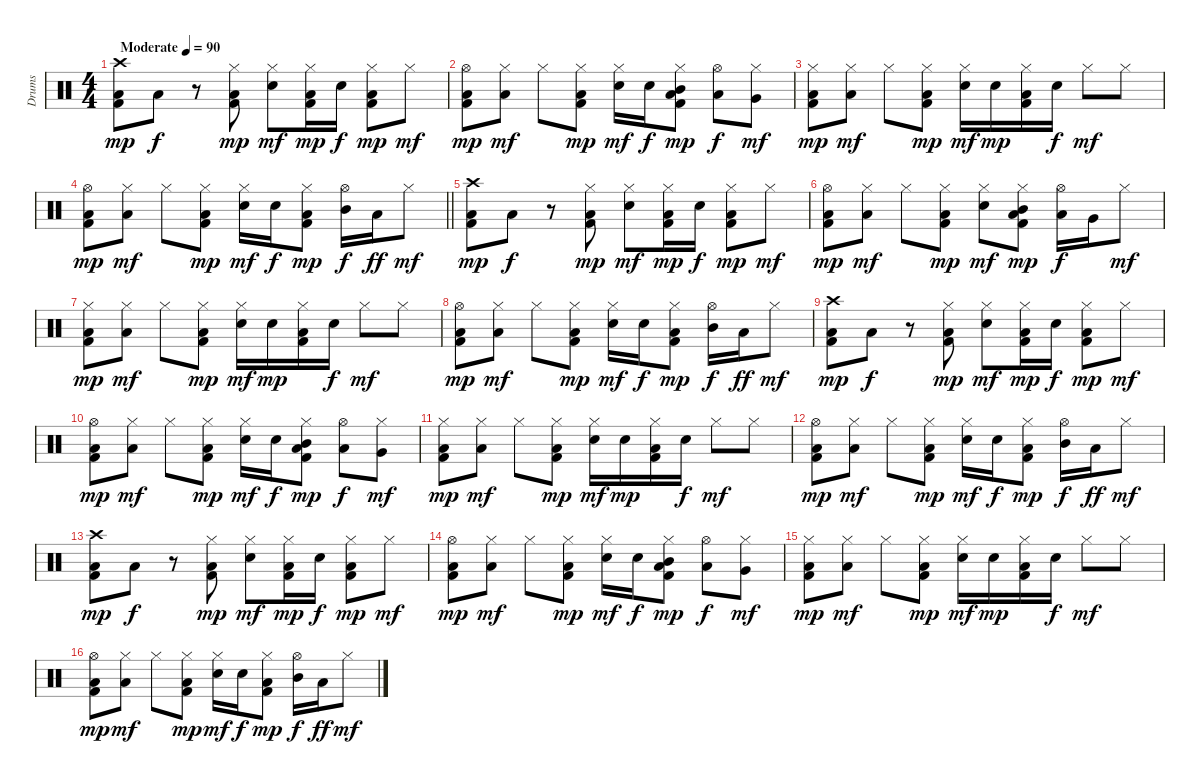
\track ("Drums" "Drums") {instrument percussion}
\staff {score}
\articulation defaults
\ts (4 4)
\tempo (90 "Moderate")
\clef neutral
\ks c
("Crash high (hit)" "Kick (hit) 2" "Low Floor Tom (hit)").8{dy mp} "Low Tom (hit)".8{dy f} r.8 ("Hi-Hat (closed)" "Kick (hit) 2" "Low Floor Tom (hit)").8{dy mp} ("Hi-Hat (closed)" "Snare (hit) 2").8{dy mf} ("Hi-Hat (closed)" "Kick (hit) 2" "Low Floor Tom (hit)").16{dy mp} "Snare (hit) 2".16{dy f} ("Hi-Hat (closed)" "Kick (hit) 2" "Low Floor Tom (hit)").8{dy mp} "Hi-Hat (closed)".8{dy mf} |
("Hi-Hat (open)" "Kick (hit) 2" "Low Floor Tom (hit)").8{dy mp} ("Hi-Hat (closed)" "Low Tom (hit)").8{dy mf} "Hi-Hat (closed)".8 ("Hi-Hat (closed)" "Kick (hit) 2" "Low Floor Tom (hit)").8{dy mp} ("Hi-Hat (closed)" "Snare (hit) 2").16{dy mf} "Snare (hit) 2".16{dy f} ("Hi-Hat (closed)" "Mid Tom (hit)" "Kick (hit) 2" "Low Floor Tom (hit)").8{dy mp} ("Hi-Hat (open)" "Low Tom (hit)").8{dy f} ("Hi-Hat (closed)" "Very Low Tom (hit)").8{dy mf} |
("Hi-Hat (closed)" "Kick (hit) 2" "Low Floor Tom (hit)").8{dy mp} ("Hi-Hat (closed)" "Low Tom (hit)").8{dy mf} "Hi-Hat (closed)".8 ("Hi-Hat (closed)" "Kick (hit) 2" "Low Floor Tom (hit)").8{dy mp} ("Hi-Hat (closed)" "Snare (hit) 2").16{dy mf} "Snare (hit) 2".16{dy mp} ("Hi-Hat (closed)" "Kick (hit) 2" "Low Floor Tom (hit)").16 "Snare (hit) 2".16{dy f} "Hi-Hat (closed)".8{dy mf} "Hi-Hat (closed)".8 |
\barLineRight lightlight
("Hi-Hat (open)" "Kick (hit) 2" "Low Floor Tom (hit)").8{dy mp} ("Hi-Hat (closed)" "Low Tom (hit)").8{dy mf} "Hi-Hat (closed)".8 ("Hi-Hat (closed)" "Kick (hit) 2" "Low Floor Tom (hit)").8{dy mp} ("Hi-Hat (closed)" "Snare (hit) 2").16{dy mf} "Snare (hit) 2".16{dy f} ("Hi-Hat (closed)" "Kick (hit) 2" "Low Floor Tom (hit)").8{dy mp} ("Hi-Hat (open)" "Mid Tom (hit)").16{dy f} "Low Tom (hit)".16{dy ff} "Hi-Hat (closed)".8{dy mf} |
\section ("" "")
("Crash high (hit)" "Kick (hit) 2" "Low Floor Tom (hit)").8{dy mp} "Low Tom (hit)".8{dy f} r.8 ("Hi-Hat (closed)" "Kick (hit) 2" "Low Floor Tom (hit)").8{dy mp} ("Hi-Hat (closed)" "Snare (hit) 2").8{dy mf} ("Hi-Hat (closed)" "Kick (hit) 2" "Low Floor Tom (hit)").16{dy mp} "Snare (hit) 2".16{dy f} ("Hi-Hat (closed)" "Kick (hit) 2" "Low Floor Tom (hit)").8{dy mp} "Hi-Hat (closed)".8{dy mf} |
("Hi-Hat (open)" "Kick (hit) 2" "Low Floor Tom (hit)").8{dy mp} ("Hi-Hat (closed)" "Low Tom (hit)").8{dy mf} "Hi-Hat (closed)".8 ("Hi-Hat (closed)" "Kick (hit) 2" "Low Floor Tom (hit)").8{dy mp} ("Hi-Hat (closed)" "Snare (hit) 2").8{dy mf} ("Hi-Hat (closed)" "Mid Tom (hit)" "Kick (hit) 2" "Low Floor Tom (hit)").8{dy mp} ("Hi-Hat (open)" "Low Tom (hit)").16{dy f} "Very Low Tom (hit)".16 "Hi-Hat (closed)".8{dy mf} |
("Hi-Hat (closed)" "Kick (hit) 2" "Low Floor Tom (hit)").8{dy mp} ("Hi-Hat (closed)" "Low Tom (hit)").8{dy mf} "Hi-Hat (closed)".8 ("Hi-Hat (closed)" "Kick (hit) 2" "Low Floor Tom (hit)").8{dy mp} ("Hi-Hat (closed)" "Snare (hit) 2").16{dy mf} "Snare (hit) 2".16{dy mp} ("Hi-Hat (closed)" "Kick (hit) 2" "Low Floor Tom (hit)").16 "Snare (hit) 2".16{dy f} "Hi-Hat (closed)".8{dy mf} "Hi-Hat (closed)".8 |
("Hi-Hat (open)" "Kick (hit) 2" "Low Floor Tom (hit)").8{dy mp} ("Hi-Hat (closed)" "Low Tom (hit)").8{dy mf} "Hi-Hat (closed)".8 ("Hi-Hat (closed)" "Kick (hit) 2" "Low Floor Tom (hit)").8{dy mp} ("Hi-Hat (closed)" "Snare (hit) 2").16{dy mf} "Snare (hit) 2".16{dy f} ("Hi-Hat (closed)" "Kick (hit) 2" "Low Floor Tom (hit)").8{dy mp} ("Hi-Hat (open)" "Mid Tom (hit)").16{dy f} "Low Tom (hit)".16{dy ff} "Hi-Hat (closed)".8{dy mf} |
("Crash high (hit)" "Kick (hit) 2" "Low Floor Tom (hit)").8{dy mp} "Low Tom (hit)".8{dy f} r.8 ("Hi-Hat (closed)" "Kick (hit) 2" "Low Floor Tom (hit)").8{dy mp} ("Hi-Hat (closed)" "Snare (hit) 2").8{dy mf} ("Hi-Hat (closed)" "Kick (hit) 2" "Low Floor Tom (hit)").16{dy mp} "Snare (hit) 2".16{dy f} ("Hi-Hat (closed)" "Kick (hit) 2" "Low Floor Tom (hit)").8{dy mp} "Hi-Hat (closed)".8{dy mf} |
("Hi-Hat (open)" "Kick (hit) 2" "Low Floor Tom (hit)").8{dy mp} ("Hi-Hat (closed)" "Low Tom (hit)").8{dy mf} "Hi-Hat (closed)".8 ("Hi-Hat (closed)" "Kick (hit) 2" "Low Floor Tom (hit)").8{dy mp} ("Hi-Hat (closed)" "Snare (hit) 2").16{dy mf} "Snare (hit) 2".16{dy f} ("Hi-Hat (closed)" "Mid Tom (hit)" "Kick (hit) 2" "Low Floor Tom (hit)").8{dy mp} ("Hi-Hat (open)" "Low Tom (hit)").8{dy f} ("Hi-Hat (closed)" "Very Low Tom (hit)").8{dy mf} |
("Hi-Hat (closed)" "Kick (hit) 2" "Low Floor Tom (hit)").8{dy mp} ("Hi-Hat (closed)" "Low Tom (hit)").8{dy mf} "Hi-Hat (closed)".8 ("Hi-Hat (closed)" "Kick (hit) 2" "Low Floor Tom (hit)").8{dy mp} ("Hi-Hat (closed)" "Snare (hit) 2").16{dy mf} "Snare (hit) 2".16{dy mp} ("Hi-Hat (closed)" "Kick (hit) 2" "Low Floor Tom (hit)").16 "Snare (hit) 2".16{dy f} "Hi-Hat (closed)".8{dy mf} "Hi-Hat (closed)".8 |
("Hi-Hat (open)" "Kick (hit) 2" "Low Floor Tom (hit)").8{dy mp} ("Hi-Hat (closed)" "Low Tom (hit)").8{dy mf} "Hi-Hat (closed)".8 ("Hi-Hat (closed)" "Kick (hit) 2" "Low Floor Tom (hit)").8{dy mp} ("Hi-Hat (closed)" "Snare (hit) 2").16{dy mf} "Snare (hit) 2".16{dy f} ("Hi-Hat (closed)" "Kick (hit) 2" "Low Floor Tom (hit)").8{dy mp} ("Hi-Hat (open)" "Mid Tom (hit)").16{dy f} "Low Tom (hit)".16{dy ff} "Hi-Hat (closed)".8{dy mf} |
("Crash high (hit)" "Kick (hit) 2" "Low Floor Tom (hit)").8{dy mp} "Low Tom (hit)".8{dy f} r.8 ("Hi-Hat (closed)" "Kick (hit) 2" "Low Floor Tom (hit)").8{dy mp} ("Hi-Hat (closed)" "Snare (hit) 2").8{dy mf} ("Hi-Hat (closed)" "Kick (hit) 2" "Low Floor Tom (hit)").16{dy mp} "Snare (hit) 2".16{dy f} ("Hi-Hat (closed)" "Kick (hit) 2" "Low Floor Tom (hit)").8{dy mp} "Hi-Hat (closed)".8{dy mf} |
("Hi-Hat (open)" "Kick (hit) 2" "Low Floor Tom (hit)").8{dy mp} ("Hi-Hat (closed)" "Low Tom (hit)").8{dy mf} "Hi-Hat (closed)".8 ("Hi-Hat (closed)" "Kick (hit) 2" "Low Floor Tom (hit)").8{dy mp} ("Hi-Hat (closed)" "Snare (hit) 2").16{dy mf} "Snare (hit) 2".16{dy f} ("Hi-Hat (closed)" "Mid Tom (hit)" "Kick (hit) 2" "Low Floor Tom (hit)").8{dy mp} ("Hi-Hat (open)" "Low Tom (hit)").8{dy f} ("Hi-Hat (closed)" "Very Low Tom (hit)").8{dy mf} |
("Hi-Hat (closed)" "Kick (hit) 2" "Low Floor Tom (hit)").8{dy mp} ("Hi-Hat (closed)" "Low Tom (hit)").8{dy mf} "Hi-Hat (closed)".8 ("Hi-Hat (closed)" "Kick (hit) 2" "Low Floor Tom (hit)").8{dy mp} ("Hi-Hat (closed)" "Snare (hit) 2").16{dy mf} "Snare (hit) 2".16{dy mp} ("Hi-Hat (closed)" "Kick (hit) 2" "Low Floor Tom (hit)").16 "Snare (hit) 2".16{dy f} "Hi-Hat (closed)".8{dy mf} "Hi-Hat (closed)".8 |
("Hi-Hat (open)" "Kick (hit) 2" "Low Floor Tom (hit)").8{dy mp} ("Hi-Hat (closed)" "Low Tom (hit)").8{dy mf} "Hi-Hat (closed)".8 ("Hi-Hat (closed)" "Kick (hit) 2" "Low Floor Tom (hit)").8{dy mp} ("Hi-Hat (closed)" "Snare (hit) 2").16{dy mf} "Snare (hit) 2".16{dy f} ("Hi-Hat (closed)" "Kick (hit) 2" "Low Floor Tom (hit)").8{dy mp} ("Hi-Hat (open)" "Mid Tom (hit)").16{dy f} "Low Tom (hit)".16{dy ff} "Hi-Hat (closed)".8{dy mf}
